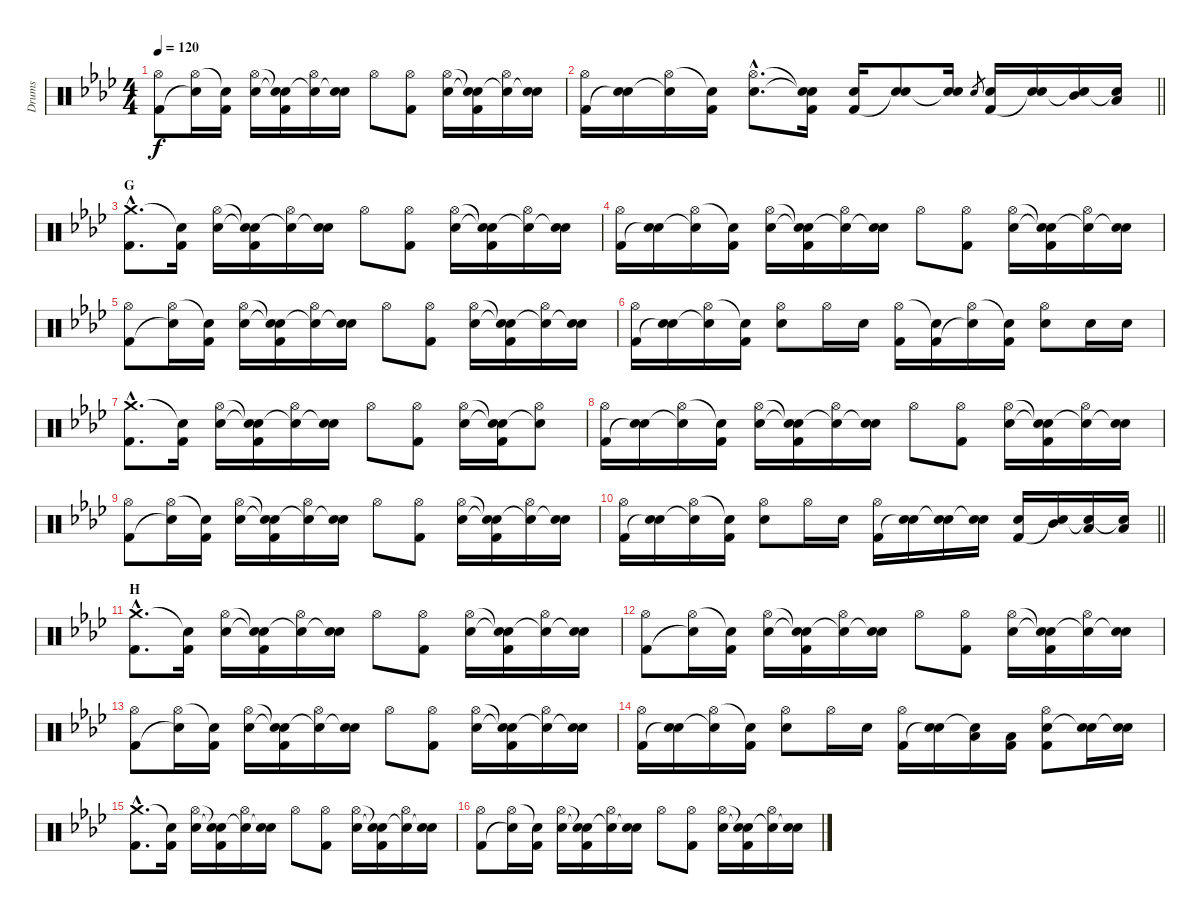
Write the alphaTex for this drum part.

\track ("Drums" "Drums") {instrument percussion}
\staff {score}
\articulation defaults
\ts (4 4)
\tempo 120
\clef neutral
\ks fminor
("Hi-Hat (open)" "Kick (hit) 2").8{dy f} ("Hi-Hat (open)" "Snare (hit)"{t}).16 ("Snare (hit)"{t} "Kick (hit) 2").16 ("Hi-Hat (open)" "Electric Snare (hit)").16 ("Snare (hit)"{t} "Snare (hit)"{t} "Kick (hit) 2").16 ("Hi-Hat (open)" "Snare (hit)"{t}).16 ("Electric Snare (hit)" "Snare (hit)"{t}).16 "Hi-Hat (open)".8 ("Hi-Hat (open)" "Kick (hit) 2").8 ("Hi-Hat (open)" "Electric Snare (hit)").16 ("Snare (hit)"{t} "Snare (hit)"{t} "Kick (hit) 2").16 ("Hi-Hat (open)" "Snare (hit)"{t}).16 ("Electric Snare (hit)" "Snare (hit)"{t}).16 |
\barLineRight lightlight
("Hi-Hat (open)" "Kick (hit) 2").16 ("Electric Snare (hit)" "Snare (hit)"{t}).16 ("Hi-Hat (open)" "Snare (hit)"{t}).16 ("Snare (hit)"{t} "Kick (hit) 2").16 ("Hi-Hat (open)"{hac} "Electric Snare (hit)"{hac}).8{d} ("Snare (hit)"{t} "Snare (hit)"{t} "Kick (hit) 2").16 ("Electric Snare (hit)" "Kick (hit) 2").16 ("Electric Snare (hit)" "Snare (hit)"{t}).8 ("Electric Snare (hit)" "Snare (hit)"{t}).16 "Electric Snare (hit)".8{gr} ("Electric Snare (hit)" "Kick (hit) 2").16 ("Electric Snare (hit)" "Snare (hit)"{t}).16 ("Mid Tom (hit)" "Snare (hit)"{t}).16 ("Low Floor Tom (hit)" "Snare (hit)"{t}).16 |
\section ("" "G")
("Crash medium (hit)"{hac} "Kick (hit) 2"{hac}).8{d} ("Snare (hit)"{t} "Kick (hit) 2").16 ("Hi-Hat (open)" "Electric Snare (hit)").16 ("Snare (hit)"{t} "Snare (hit)"{t} "Kick (hit) 2").16 ("Hi-Hat (open)" "Snare (hit)"{t}).16 ("Electric Snare (hit)" "Snare (hit)"{t}).16 "Hi-Hat (open)".8 ("Hi-Hat (open)" "Kick (hit) 2").8 ("Hi-Hat (open)" "Electric Snare (hit)").16 ("Snare (hit)"{t} "Snare (hit)"{t} "Kick (hit) 2").16 ("Hi-Hat (open)" "Snare (hit)"{t}).16 ("Electric Snare (hit)" "Snare (hit)"{t}).16 |
("Hi-Hat (open)" "Kick (hit) 2").16 ("Electric Snare (hit)" "Snare (hit)"{t}).16 ("Hi-Hat (open)" "Snare (hit)"{t}).16 ("Snare (hit)"{t} "Kick (hit) 2").16 ("Hi-Hat (open)" "Electric Snare (hit)").16 ("Snare (hit)"{t} "Snare (hit)"{t} "Kick (hit) 2").16 ("Hi-Hat (open)" "Snare (hit)"{t}).16 ("Electric Snare (hit)" "Snare (hit)"{t}).16 "Hi-Hat (open)".8 ("Hi-Hat (open)" "Kick (hit) 2").8 ("Hi-Hat (open)" "Electric Snare (hit)").16 ("Snare (hit)"{t} "Snare (hit)"{t} "Kick (hit) 2").16 ("Hi-Hat (open)" "Snare (hit)"{t}).16 ("Electric Snare (hit)" "Snare (hit)"{t}).16 |
("Hi-Hat (open)" "Kick (hit) 2").8 ("Hi-Hat (open)" "Snare (hit)"{t}).16 ("Snare (hit)"{t} "Kick (hit) 2").16 ("Hi-Hat (open)" "Electric Snare (hit)").16 ("Snare (hit)"{t} "Snare (hit)"{t} "Kick (hit) 2").16 ("Hi-Hat (open)" "Snare (hit)"{t}).16 ("Electric Snare (hit)" "Snare (hit)"{t}).16 "Hi-Hat (open)".8 ("Hi-Hat (open)" "Kick (hit) 2").8 ("Hi-Hat (open)" "Electric Snare (hit)").16 ("Snare (hit)"{t} "Snare (hit)"{t} "Kick (hit) 2").16 ("Hi-Hat (open)" "Snare (hit)"{t}).16 ("Electric Snare (hit)" "Snare (hit)"{t}).16 |
("Hi-Hat (open)" "Kick (hit) 2").16 ("Electric Snare (hit)" "Snare (hit)"{t}).16 ("Hi-Hat (open)" "Snare (hit)"{t}).16 ("Snare (hit)"{t} "Kick (hit) 2").16 ("Hi-Hat (open)" "Electric Snare (hit)").8 "Hi-Hat (open)".16 "Electric Snare (hit)".16 ("Hi-Hat (open)" "Kick (hit) 2").16 ("Snare (hit)"{t} "Kick (hit) 2").16 ("Hi-Hat (open)" "Snare (hit)"{t}).16 ("Snare (hit)"{t} "Kick (hit) 2").16 ("Hi-Hat (open)" "Electric Snare (hit)").8 "Electric Snare (hit)".16 "Electric Snare (hit)".16 |
("Crash medium (hit)"{hac} "Kick (hit) 2"{hac}).8{d} ("Snare (hit)"{t} "Kick (hit) 2").16 ("Hi-Hat (open)" "Electric Snare (hit)").16 ("Snare (hit)"{t} "Snare (hit)"{t} "Kick (hit) 2").16 ("Hi-Hat (open)" "Snare (hit)"{t}).16 ("Electric Snare (hit)" "Snare (hit)"{t}).16 "Hi-Hat (open)".8 ("Hi-Hat (open)" "Kick (hit) 2").8 ("Hi-Hat (open)" "Electric Snare (hit)").16 ("Snare (hit)"{t} "Snare (hit)"{t} "Kick (hit) 2").16 ("Hi-Hat (open)" "Snare (hit)"{t}).8 |
("Hi-Hat (open)" "Kick (hit) 2").16 ("Electric Snare (hit)" "Snare (hit)"{t}).16 ("Hi-Hat (open)" "Snare (hit)"{t}).16 ("Snare (hit)"{t} "Kick (hit) 2").16 ("Hi-Hat (open)" "Electric Snare (hit)").16 ("Snare (hit)"{t} "Snare (hit)"{t} "Kick (hit) 2").16 ("Hi-Hat (open)" "Snare (hit)"{t}).16 ("Electric Snare (hit)" "Snare (hit)"{t}).16 "Hi-Hat (open)".8 ("Hi-Hat (open)" "Kick (hit) 2").8 ("Hi-Hat (open)" "Electric Snare (hit)").16 ("Snare (hit)"{t} "Snare (hit)"{t} "Kick (hit) 2").16 ("Hi-Hat (open)" "Snare (hit)"{t}).16 ("Electric Snare (hit)" "Snare (hit)"{t}).16 |
("Hi-Hat (open)" "Kick (hit) 2").8 ("Hi-Hat (open)" "Snare (hit)"{t}).16 ("Snare (hit)"{t} "Kick (hit) 2").16 ("Hi-Hat (open)" "Electric Snare (hit)").16 ("Snare (hit)"{t} "Snare (hit)"{t} "Kick (hit) 2").16 ("Hi-Hat (open)" "Snare (hit)"{t}).16 ("Electric Snare (hit)" "Snare (hit)"{t}).16 "Hi-Hat (open)".8 ("Hi-Hat (open)" "Kick (hit) 2").8 ("Hi-Hat (open)" "Electric Snare (hit)").16 ("Snare (hit)"{t} "Snare (hit)"{t} "Kick (hit) 2").16 ("Hi-Hat (open)" "Snare (hit)"{t}).16 ("Electric Snare (hit)" "Snare (hit)"{t}).16 |
\barLineRight lightlight
("Hi-Hat (open)" "Kick (hit) 2").16 ("Electric Snare (hit)" "Snare (hit)"{t}).16 ("Hi-Hat (open)" "Snare (hit)"{t}).16 ("Snare (hit)"{t} "Kick (hit) 2").16 ("Hi-Hat (open)" "Electric Snare (hit)").8 "Hi-Hat (open)".16 "Electric Snare (hit)".16 ("Hi-Hat (open)" "Kick (hit) 2").16 ("Electric Snare (hit)" "Snare (hit)"{t}).16 ("Electric Snare (hit)" "Snare (hit)"{t}).16 ("Electric Snare (hit)" "Snare (hit)"{t}).16 ("Electric Snare (hit)" "Kick (hit) 2").16 ("Mid Tom (hit)" "Snare (hit)"{t}).16 ("Low Tom (hit)" "Snare (hit)"{t}).16 ("Low Floor Tom (hit)" "Snare (hit)"{t}).16 |
\section ("" "H")
("Crash medium (hit)"{hac} "Kick (hit) 2"{hac}).8{d} ("Snare (hit)"{t} "Kick (hit) 2").16 ("Hi-Hat (open)" "Electric Snare (hit)").16 ("Snare (hit)"{t} "Snare (hit)"{t} "Kick (hit) 2").16 ("Hi-Hat (open)" "Snare (hit)"{t}).16 ("Electric Snare (hit)" "Snare (hit)"{t}).16 "Hi-Hat (open)".8 ("Hi-Hat (open)" "Kick (hit) 2").8 ("Hi-Hat (open)" "Electric Snare (hit)").16 ("Snare (hit)"{t} "Snare (hit)"{t} "Kick (hit) 2").16 ("Hi-Hat (open)" "Snare (hit)"{t}).16 ("Electric Snare (hit)" "Snare (hit)"{t}).16 |
("Hi-Hat (open)" "Kick (hit) 2").8 ("Hi-Hat (open)" "Snare (hit)"{t}).16 ("Snare (hit)"{t} "Kick (hit) 2").16 ("Hi-Hat (open)" "Electric Snare (hit)").16 ("Snare (hit)"{t} "Snare (hit)"{t} "Kick (hit) 2").16 ("Hi-Hat (open)" "Snare (hit)"{t}).16 ("Electric Snare (hit)" "Snare (hit)"{t}).16 "Hi-Hat (open)".8 ("Hi-Hat (open)" "Kick (hit) 2").8 ("Hi-Hat (open)" "Electric Snare (hit)").16 ("Snare (hit)"{t} "Snare (hit)"{t} "Kick (hit) 2").16 ("Hi-Hat (open)" "Snare (hit)"{t}).16 ("Electric Snare (hit)" "Snare (hit)"{t}).16 |
("Hi-Hat (open)" "Kick (hit) 2").8 ("Hi-Hat (open)" "Snare (hit)"{t}).16 ("Snare (hit)"{t} "Kick (hit) 2").16 ("Hi-Hat (open)" "Electric Snare (hit)").16 ("Snare (hit)"{t} "Snare (hit)"{t} "Kick (hit) 2").16 ("Hi-Hat (open)" "Snare (hit)"{t}).16 ("Electric Snare (hit)" "Snare (hit)"{t}).16 "Hi-Hat (open)".8 ("Hi-Hat (open)" "Kick (hit) 2").8 ("Hi-Hat (open)" "Electric Snare (hit)").16 ("Snare (hit)"{t} "Snare (hit)"{t} "Kick (hit) 2").16 ("Hi-Hat (open)" "Snare (hit)"{t}).16 ("Electric Snare (hit)" "Snare (hit)"{t}).16 |
("Hi-Hat (open)" "Kick (hit) 2").16 ("Electric Snare (hit)" "Snare (hit)"{t}).16 ("Hi-Hat (open)" "Snare (hit)"{t}).16 ("Snare (hit)"{t} "Kick (hit) 2").16 ("Hi-Hat (open)" "Electric Snare (hit)").8 "Hi-Hat (open)".16 "Electric Snare (hit)".16 ("Hi-Hat (open)" "Kick (hit) 2").16 ("Electric Snare (hit)" "Snare (hit)"{t}).16 ("Low Tom (hit)" "Snare (hit)"{t}).16 ("Low Floor Tom (hit)" "Kick (hit) 2").16 ("Hi-Hat (open)" "Electric Snare (hit)" "Kick (hit) 2").8 ("Electric Snare (hit)" "Snare (hit)"{t}).16 ("Electric Snare (hit)" "Snare (hit)"{t}).16 |
("Crash medium (hit)"{hac} "Kick (hit) 2"{hac}).8{d} ("Snare (hit)"{t} "Kick (hit) 2").16 ("Hi-Hat (open)" "Electric Snare (hit)").16 ("Snare (hit)"{t} "Snare (hit)"{t} "Kick (hit) 2").16 ("Hi-Hat (open)" "Snare (hit)"{t}).16 ("Electric Snare (hit)" "Snare (hit)"{t}).16 "Hi-Hat (open)".8 ("Hi-Hat (open)" "Kick (hit) 2").8 ("Hi-Hat (open)" "Electric Snare (hit)").16 ("Snare (hit)"{t} "Snare (hit)"{t} "Kick (hit) 2").16 ("Hi-Hat (open)" "Snare (hit)"{t}).16 ("Electric Snare (hit)" "Snare (hit)"{t}).16 |
("Hi-Hat (open)" "Kick (hit) 2").8 ("Hi-Hat (open)" "Snare (hit)"{t}).16 ("Snare (hit)"{t} "Kick (hit) 2").16 ("Hi-Hat (open)" "Electric Snare (hit)").16 ("Snare (hit)"{t} "Snare (hit)"{t} "Kick (hit) 2").16 ("Hi-Hat (open)" "Snare (hit)"{t}).16 ("Electric Snare (hit)" "Snare (hit)"{t}).16 "Hi-Hat (open)".8 ("Hi-Hat (open)" "Kick (hit) 2").8 ("Hi-Hat (open)" "Electric Snare (hit)").16 ("Snare (hit)"{t} "Snare (hit)"{t} "Kick (hit) 2").16 ("Hi-Hat (open)" "Snare (hit)"{t}).16 ("Electric Snare (hit)" "Snare (hit)"{t}).16
